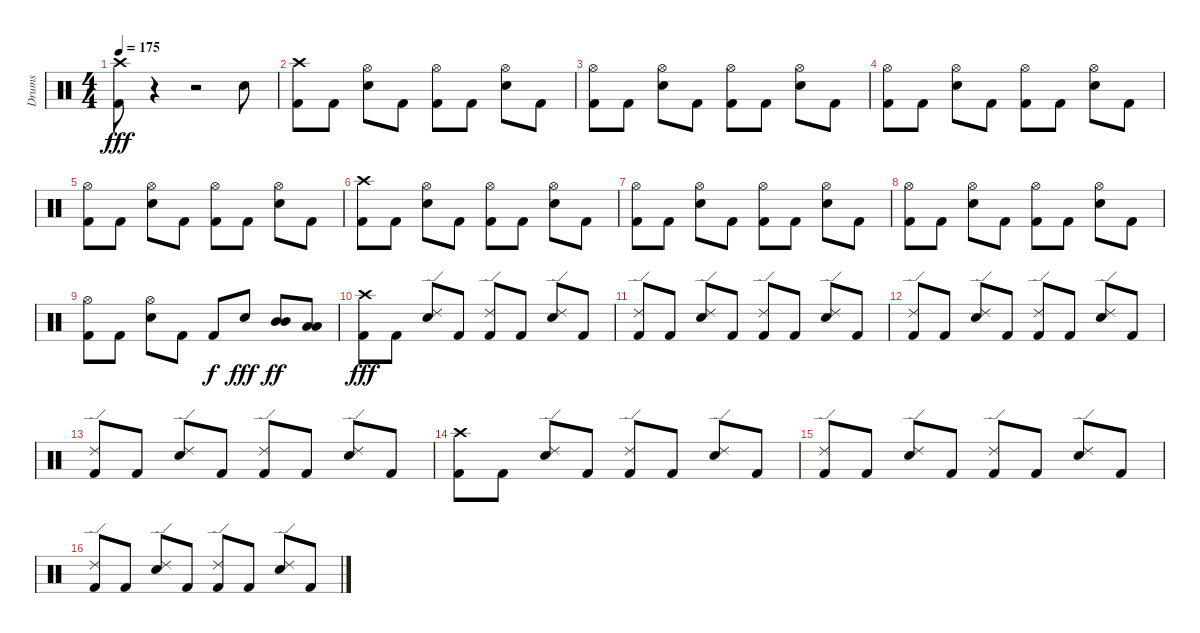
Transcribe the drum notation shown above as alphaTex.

\track ("Drums" "Drums") {instrument percussion}
\staff {score}
\articulation defaults
\ts (4 4)
\tempo 175
\clef neutral
\ks c
("Kick (hit) 2" "Crash high (hit)").8{dy fff} r.4 r.2 "Electric Snare (hit)".8 |
("Kick (hit) 2" "Crash high (hit)").8 "Kick (hit) 2".8 ("Electric Snare (hit)" "Hi-Hat (open)").8 "Kick (hit) 2".8 ("Kick (hit) 2" "Hi-Hat (open)").8 "Kick (hit) 2".8 ("Electric Snare (hit)" "Hi-Hat (open)").8 "Kick (hit) 2".8 |
("Kick (hit) 2" "Hi-Hat (open)").8 "Kick (hit) 2".8 ("Electric Snare (hit)" "Hi-Hat (open)").8 "Kick (hit) 2".8 ("Kick (hit) 2" "Hi-Hat (open)").8 "Kick (hit) 2".8 ("Electric Snare (hit)" "Hi-Hat (open)").8 "Kick (hit) 2".8 |
("Kick (hit) 2" "Hi-Hat (open)").8 "Kick (hit) 2".8 ("Electric Snare (hit)" "Hi-Hat (open)").8 "Kick (hit) 2".8 ("Kick (hit) 2" "Hi-Hat (open)").8 "Kick (hit) 2".8 ("Electric Snare (hit)" "Hi-Hat (open)").8 "Kick (hit) 2".8 |
("Kick (hit) 2" "Hi-Hat (open)").8 "Kick (hit) 2".8 ("Electric Snare (hit)" "Hi-Hat (open)").8 "Kick (hit) 2".8 ("Kick (hit) 2" "Hi-Hat (open)").8 "Kick (hit) 2".8 ("Electric Snare (hit)" "Hi-Hat (open)").8 "Kick (hit) 2".8 |
("Kick (hit) 2" "Crash high (hit)").8 "Kick (hit) 2".8 ("Electric Snare (hit)" "Hi-Hat (open)").8 "Kick (hit) 2".8 ("Kick (hit) 2" "Hi-Hat (open)").8 "Kick (hit) 2".8 ("Electric Snare (hit)" "Hi-Hat (open)").8 "Kick (hit) 2".8 |
("Kick (hit) 2" "Hi-Hat (open)").8 "Kick (hit) 2".8 ("Electric Snare (hit)" "Hi-Hat (open)").8 "Kick (hit) 2".8 ("Kick (hit) 2" "Hi-Hat (open)").8 "Kick (hit) 2".8 ("Electric Snare (hit)" "Hi-Hat (open)").8 "Kick (hit) 2".8 |
("Kick (hit) 2" "Hi-Hat (open)").8 "Kick (hit) 2".8 ("Electric Snare (hit)" "Hi-Hat (open)").8 "Kick (hit) 2".8 ("Kick (hit) 2" "Hi-Hat (open)").8 "Kick (hit) 2".8 ("Electric Snare (hit)" "Hi-Hat (open)").8 "Kick (hit) 2".8 |
("Kick (hit) 2" "Hi-Hat (open)").8 "Kick (hit) 2".8 ("Electric Snare (hit)" "Hi-Hat (open)").8 "Kick (hit) 2".8 "Kick (hit) 2".8{dy f} "Electric Snare (hit)".8{dy fff} ("Mid Tom (hit)" "Mid Tom (hit)").8{dy ff} ("Low Tom (hit)" "Low Tom (hit)").8 |
("Kick (hit) 2" "Crash high (hit)").8{dy fff} "Kick (hit) 2".8 ("Electric Snare (hit)" "Ride (edge) 2").8 "Kick (hit) 2".8 ("Kick (hit) 2" "Ride (edge) 2").8 "Kick (hit) 2".8 ("Electric Snare (hit)" "Ride (edge) 2").8 "Kick (hit) 2".8 |
("Kick (hit) 2" "Ride (edge) 2").8 "Kick (hit) 2".8 ("Electric Snare (hit)" "Ride (edge) 2").8 "Kick (hit) 2".8 ("Kick (hit) 2" "Ride (edge) 2").8 "Kick (hit) 2".8 ("Electric Snare (hit)" "Ride (edge) 2").8 "Kick (hit) 2".8 |
("Kick (hit) 2" "Ride (edge) 2").8 "Kick (hit) 2".8 ("Electric Snare (hit)" "Ride (edge) 2").8 "Kick (hit) 2".8 ("Kick (hit) 2" "Ride (edge) 2").8 "Kick (hit) 2".8 ("Electric Snare (hit)" "Ride (edge) 2").8 "Kick (hit) 2".8 |
("Kick (hit) 2" "Ride (edge) 2").8 "Kick (hit) 2".8 ("Electric Snare (hit)" "Ride (edge) 2").8 "Kick (hit) 2".8 ("Kick (hit) 2" "Ride (edge) 2").8 "Kick (hit) 2".8 ("Electric Snare (hit)" "Ride (edge) 2").8 "Kick (hit) 2".8 |
("Kick (hit) 2" "Crash high (hit)").8 "Kick (hit) 2".8 ("Electric Snare (hit)" "Ride (edge) 2").8 "Kick (hit) 2".8 ("Kick (hit) 2" "Ride (edge) 2").8 "Kick (hit) 2".8 ("Electric Snare (hit)" "Ride (edge) 2").8 "Kick (hit) 2".8 |
("Kick (hit) 2" "Ride (edge) 2").8 "Kick (hit) 2".8 ("Electric Snare (hit)" "Ride (edge) 2").8 "Kick (hit) 2".8 ("Kick (hit) 2" "Ride (edge) 2").8 "Kick (hit) 2".8 ("Electric Snare (hit)" "Ride (edge) 2").8 "Kick (hit) 2".8 |
("Kick (hit) 2" "Ride (edge) 2").8 "Kick (hit) 2".8 ("Electric Snare (hit)" "Ride (edge) 2").8 "Kick (hit) 2".8 ("Kick (hit) 2" "Ride (edge) 2").8 "Kick (hit) 2".8 ("Electric Snare (hit)" "Ride (edge) 2").8 "Kick (hit) 2".8
